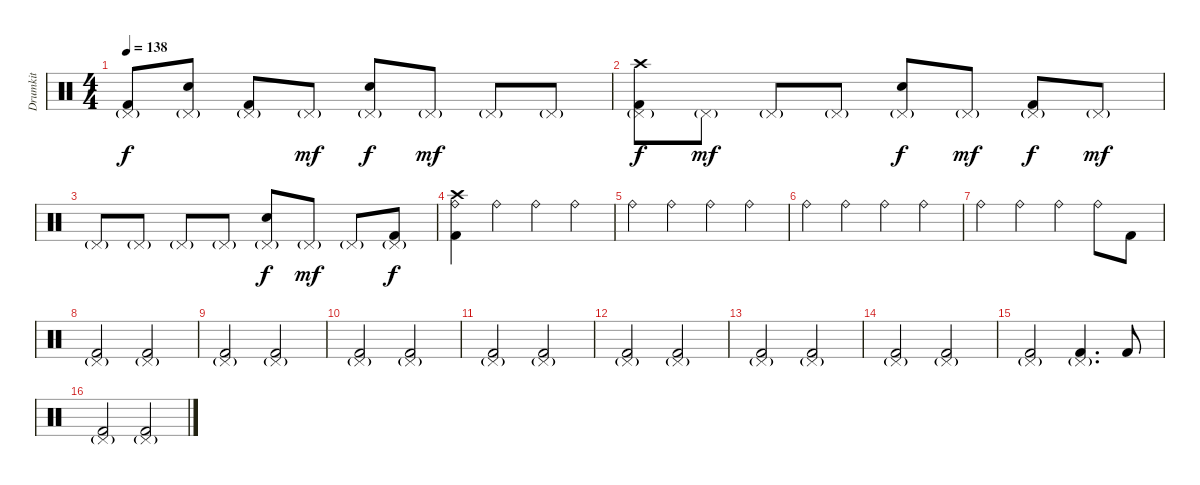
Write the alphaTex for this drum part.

\track ("Drumkit" "Drumkit") {instrument percussion}
\staff {score}
\articulation defaults
\ts (4 4)
\tempo 138
\clef neutral
\ks c
("Pedal Hi-Hat (hit)"{g} "Kick (hit) 2").8{dy f} ("Snare (hit) 2" "Pedal Hi-Hat (hit)"{g}).8 ("Pedal Hi-Hat (hit)"{g} "Kick (hit) 2").8 "Pedal Hi-Hat (hit)"{g}.8{dy mf} ("Snare (hit) 2" "Pedal Hi-Hat (hit)"{g}).8{dy f} "Pedal Hi-Hat (hit)"{g}.8{dy mf} "Pedal Hi-Hat (hit)"{g}.8 "Pedal Hi-Hat (hit)"{g}.8 |
("Crash high (hit)" "Pedal Hi-Hat (hit)"{g} "Kick (hit) 2").8{dy f} "Pedal Hi-Hat (hit)"{g}.8{dy mf} "Pedal Hi-Hat (hit)"{g}.8 "Pedal Hi-Hat (hit)"{g}.8 ("Snare (hit) 2" "Pedal Hi-Hat (hit)"{g}).8{dy f} "Pedal Hi-Hat (hit)"{g}.8{dy mf} ("Pedal Hi-Hat (hit)"{g} "Kick (hit) 2").8{dy f} "Pedal Hi-Hat (hit)"{g}.8{dy mf} |
"Pedal Hi-Hat (hit)"{g}.8 "Pedal Hi-Hat (hit)"{g}.8 "Pedal Hi-Hat (hit)"{g}.8 "Pedal Hi-Hat (hit)"{g}.8 ("Snare (hit) 2" "Pedal Hi-Hat (hit)"{g}).8{dy f} "Pedal Hi-Hat (hit)"{g}.8{dy mf} "Pedal Hi-Hat (hit)"{g}.8 ("Pedal Hi-Hat (hit)"{g} "Kick (hit) 2").8{dy f} |
("Ride (bell)" "Crash high (hit)" "Kick (hit) 2").4 "Ride (bell)".4 "Ride (bell)".4 "Ride (bell)".4 |
"Ride (bell)".4 "Ride (bell)".4 "Ride (bell)".4 "Ride (bell)".4 |
"Ride (bell)".4 "Ride (bell)".4 "Ride (bell)".4 "Ride (bell)".4 |
"Ride (bell)".4 "Ride (bell)".4 "Ride (bell)".4 "Ride (bell)".8 "Kick (hit) 2".8 |
("Pedal Hi-Hat (hit)"{g} "Kick (hit) 2").2 ("Pedal Hi-Hat (hit)"{g} "Kick (hit) 2").2 |
("Pedal Hi-Hat (hit)"{g} "Kick (hit) 2").2 ("Pedal Hi-Hat (hit)"{g} "Kick (hit) 2").2 |
("Pedal Hi-Hat (hit)"{g} "Kick (hit) 2").2 ("Pedal Hi-Hat (hit)"{g} "Kick (hit) 2").2 |
("Pedal Hi-Hat (hit)"{g} "Kick (hit) 2").2 ("Pedal Hi-Hat (hit)"{g} "Kick (hit) 2").2 |
("Pedal Hi-Hat (hit)"{g} "Kick (hit) 2").2 ("Pedal Hi-Hat (hit)"{g} "Kick (hit) 2").2 |
("Pedal Hi-Hat (hit)"{g} "Kick (hit) 2").2 ("Pedal Hi-Hat (hit)"{g} "Kick (hit) 2").2 |
("Pedal Hi-Hat (hit)"{g} "Kick (hit) 2").2 ("Pedal Hi-Hat (hit)"{g} "Kick (hit) 2").2 |
("Pedal Hi-Hat (hit)"{g} "Kick (hit) 2").2 ("Pedal Hi-Hat (hit)"{g} "Kick (hit) 2").4{d} "Kick (hit) 2".8 |
("Pedal Hi-Hat (hit)"{g} "Kick (hit) 2").2 ("Pedal Hi-Hat (hit)"{g} "Kick (hit) 2").2
